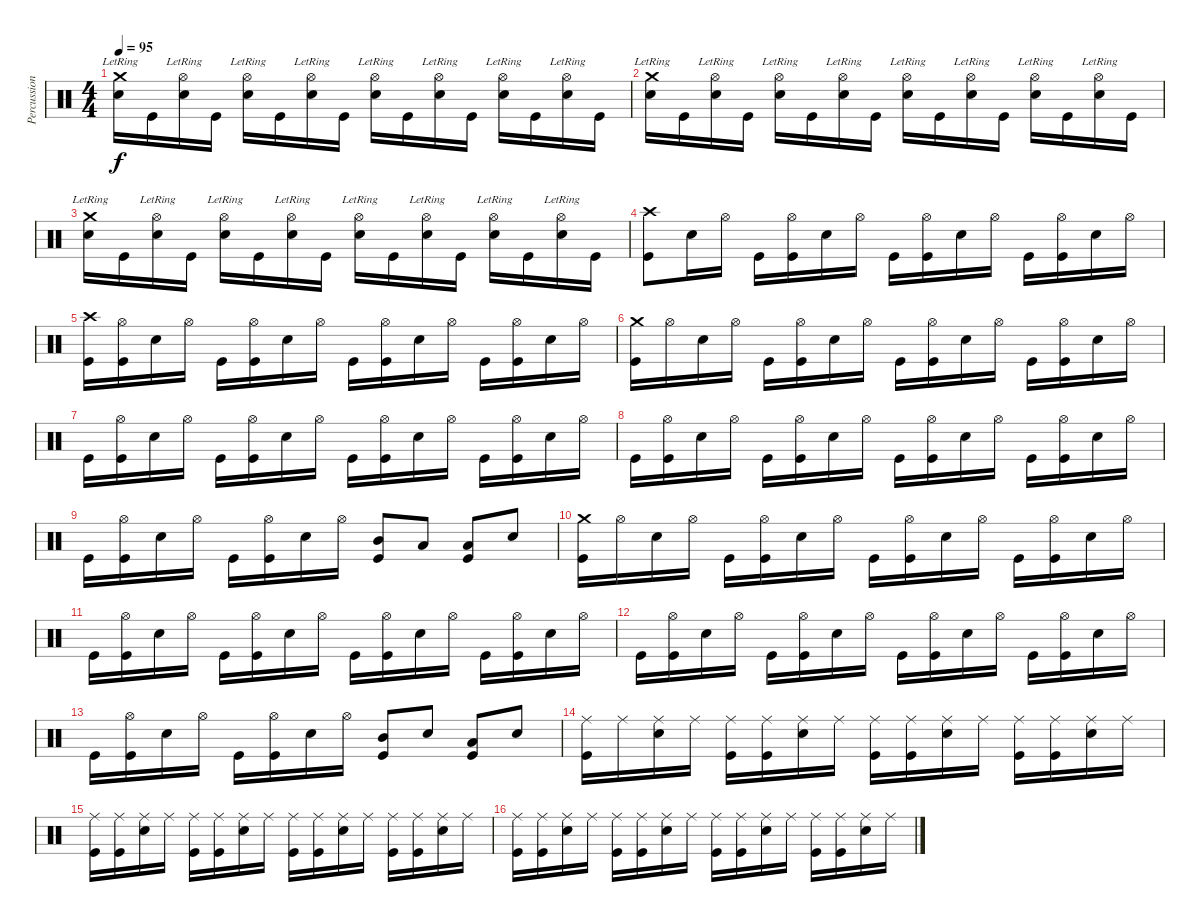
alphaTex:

\track ("Percussion" "Percussion") {instrument percussion}
\staff {score}
\articulation defaults
\ts (4 4)
\tempo 95
\clef neutral
\ks c
("Crash medium (hit)"{lr} "Snare (hit) 2").16{dy f} "Kick (hit)".16 ("Hi-Hat (open)"{lr} "Snare (hit) 2").16 "Kick (hit)".16 ("Hi-Hat (open)"{lr} "Snare (hit) 2").16 "Kick (hit)".16 ("Hi-Hat (open)"{lr} "Snare (hit) 2").16 "Kick (hit)".16 ("Hi-Hat (open)"{lr} "Snare (hit) 2").16 "Kick (hit)".16 ("Hi-Hat (open)"{lr} "Snare (hit) 2").16 "Kick (hit)".16 ("Hi-Hat (open)"{lr} "Snare (hit) 2").16 "Kick (hit)".16 ("Hi-Hat (open)"{lr} "Snare (hit) 2").16 "Kick (hit)".16 |
("Crash medium (hit)"{lr} "Snare (hit) 2").16 "Kick (hit)".16 ("Hi-Hat (open)"{lr} "Snare (hit) 2").16 "Kick (hit)".16 ("Hi-Hat (open)"{lr} "Snare (hit) 2").16 "Kick (hit)".16 ("Hi-Hat (open)"{lr} "Snare (hit) 2").16 "Kick (hit)".16 ("Hi-Hat (open)"{lr} "Snare (hit) 2").16 "Kick (hit)".16 ("Hi-Hat (open)"{lr} "Snare (hit) 2").16 "Kick (hit)".16 ("Hi-Hat (open)"{lr} "Snare (hit) 2").16 "Kick (hit)".16 ("Hi-Hat (open)"{lr} "Snare (hit) 2").16 "Kick (hit)".16 |
("Crash medium (hit)"{lr} "Snare (hit) 2").16 "Kick (hit)".16 ("Hi-Hat (open)"{lr} "Snare (hit) 2").16 "Kick (hit)".16 ("Hi-Hat (open)"{lr} "Snare (hit) 2").16 "Kick (hit)".16 ("Hi-Hat (open)"{lr} "Snare (hit) 2").16 "Kick (hit)".16 ("Hi-Hat (open)"{lr} "Snare (hit) 2").16 "Kick (hit)".16 ("Hi-Hat (open)"{lr} "Snare (hit) 2").16 "Kick (hit)".16 ("Hi-Hat (open)"{lr} "Snare (hit) 2").16 "Kick (hit)".16 ("Hi-Hat (open)"{lr} "Snare (hit) 2").16 "Kick (hit)".16 |
("Crash high (hit)" "Kick (hit)").8 "Snare (hit) 2".16 "Hi-Hat (open)".16 "Kick (hit)".16 ("Hi-Hat (open)" "Kick (hit)").16 "Snare (hit) 2".16 "Hi-Hat (open)".16 "Kick (hit)".16 ("Hi-Hat (open)" "Kick (hit)").16 "Snare (hit) 2".16 "Hi-Hat (open)".16 "Kick (hit)".16 ("Hi-Hat (open)" "Kick (hit)").16 "Snare (hit) 2".16 "Hi-Hat (open)".16 |
("Crash high (hit)" "Kick (hit)").16 ("Hi-Hat (open)" "Kick (hit)").16 "Snare (hit) 2".16 "Hi-Hat (open)".16 "Kick (hit)".16 ("Hi-Hat (open)" "Kick (hit)").16 "Snare (hit) 2".16 "Hi-Hat (open)".16 "Kick (hit)".16 ("Hi-Hat (open)" "Kick (hit)").16 "Snare (hit) 2".16 "Hi-Hat (open)".16 "Kick (hit)".16 ("Hi-Hat (open)" "Kick (hit)").16 "Snare (hit) 2".16 "Hi-Hat (open)".16 |
("Crash medium (hit)" "Kick (hit)").16 "Hi-Hat (open)".16 "Snare (hit) 2".16 "Hi-Hat (open)".16 "Kick (hit)".16 ("Hi-Hat (open)" "Kick (hit)").16 "Snare (hit) 2".16 "Hi-Hat (open)".16 "Kick (hit)".16 ("Hi-Hat (open)" "Kick (hit)").16 "Snare (hit) 2".16 "Hi-Hat (open)".16 "Kick (hit)".16 ("Hi-Hat (open)" "Kick (hit)").16 "Snare (hit) 2".16 "Hi-Hat (open)".16 |
"Kick (hit)".16 ("Hi-Hat (open)" "Kick (hit)").16 "Snare (hit) 2".16 "Hi-Hat (open)".16 "Kick (hit)".16 ("Hi-Hat (open)" "Kick (hit)").16 "Snare (hit) 2".16 "Hi-Hat (open)".16 "Kick (hit)".16 ("Hi-Hat (open)" "Kick (hit)").16 "Snare (hit) 2".16 "Hi-Hat (open)".16 "Kick (hit)".16 ("Hi-Hat (open)" "Kick (hit)").16 "Snare (hit) 2".16 "Hi-Hat (open)".16 |
"Kick (hit)".16 ("Hi-Hat (open)" "Kick (hit)").16 "Snare (hit) 2".16 "Hi-Hat (open)".16 "Kick (hit)".16 ("Hi-Hat (open)" "Kick (hit)").16 "Snare (hit) 2".16 "Hi-Hat (open)".16 "Kick (hit)".16 ("Hi-Hat (open)" "Kick (hit)").16 "Snare (hit) 2".16 "Hi-Hat (open)".16 "Kick (hit)".16 ("Hi-Hat (open)" "Kick (hit)").16 "Snare (hit) 2".16 "Hi-Hat (open)".16 |
"Kick (hit)".16 ("Hi-Hat (open)" "Kick (hit)").16 "Snare (hit) 2".16 "Hi-Hat (open)".16 "Kick (hit)".16 ("Hi-Hat (open)" "Kick (hit)").16 "Snare (hit) 2".16 "Hi-Hat (open)".16 ("Mid Tom (hit)" "Kick (hit)").8 "Low Tom (hit)".8 ("Low Tom (hit)" "Kick (hit)").8 "Snare (hit) 2".8 |
("Crash medium (hit)" "Kick (hit)").16 "Hi-Hat (open)".16 "Snare (hit) 2".16 "Hi-Hat (open)".16 "Kick (hit)".16 ("Hi-Hat (open)" "Kick (hit)").16 "Snare (hit) 2".16 "Hi-Hat (open)".16 "Kick (hit)".16 ("Hi-Hat (open)" "Kick (hit)").16 "Snare (hit) 2".16 "Hi-Hat (open)".16 "Kick (hit)".16 ("Hi-Hat (open)" "Kick (hit)").16 "Snare (hit) 2".16 "Hi-Hat (open)".16 |
"Kick (hit)".16 ("Hi-Hat (open)" "Kick (hit)").16 "Snare (hit) 2".16 "Hi-Hat (open)".16 "Kick (hit)".16 ("Hi-Hat (open)" "Kick (hit)").16 "Snare (hit) 2".16 "Hi-Hat (open)".16 "Kick (hit)".16 ("Hi-Hat (open)" "Kick (hit)").16 "Snare (hit) 2".16 "Hi-Hat (open)".16 "Kick (hit)".16 ("Hi-Hat (open)" "Kick (hit)").16 "Snare (hit) 2".16 "Hi-Hat (open)".16 |
"Kick (hit)".16 ("Hi-Hat (open)" "Kick (hit)").16 "Snare (hit) 2".16 "Hi-Hat (open)".16 "Kick (hit)".16 ("Hi-Hat (open)" "Kick (hit)").16 "Snare (hit) 2".16 "Hi-Hat (open)".16 "Kick (hit)".16 ("Hi-Hat (open)" "Kick (hit)").16 "Snare (hit) 2".16 "Hi-Hat (open)".16 "Kick (hit)".16 ("Hi-Hat (open)" "Kick (hit)").16 "Snare (hit) 2".16 "Hi-Hat (open)".16 |
"Kick (hit)".16 ("Hi-Hat (open)" "Kick (hit)").16 "Snare (hit) 2".16 "Hi-Hat (open)".16 "Kick (hit)".16 ("Hi-Hat (open)" "Kick (hit)").16 "Snare (hit) 2".16 "Hi-Hat (open)".16 ("Mid Tom (hit)" "Kick (hit)").8 "Snare (hit) 2".8 ("Low Tom (hit)" "Kick (hit)").8 "Snare (hit) 2".8 |
("Ride (middle)" "Kick (hit)").16 "Ride (middle)".16 ("Ride (middle)" "Snare (hit) 2").16 "Ride (middle)".16 ("Ride (middle)" "Kick (hit)").16 ("Ride (middle)" "Kick (hit)").16 ("Ride (middle)" "Snare (hit) 2").16 "Ride (middle)".16 ("Ride (middle)" "Kick (hit)").16 ("Ride (middle)" "Kick (hit)").16 ("Ride (middle)" "Snare (hit) 2").16 "Ride (middle)".16 ("Ride (middle)" "Kick (hit)").16 ("Ride (middle)" "Kick (hit)").16 ("Ride (middle)" "Snare (hit) 2").16 "Ride (middle)".16 |
("Ride (middle)" "Kick (hit)").16 ("Ride (middle)" "Kick (hit)").16 ("Ride (middle)" "Snare (hit) 2").16 "Ride (middle)".16 ("Ride (middle)" "Kick (hit)").16 ("Ride (middle)" "Kick (hit)").16 ("Ride (middle)" "Snare (hit) 2").16 "Ride (middle)".16 ("Ride (middle)" "Kick (hit)").16 ("Ride (middle)" "Kick (hit)").16 ("Ride (middle)" "Snare (hit) 2").16 "Ride (middle)".16 ("Ride (middle)" "Kick (hit)").16 ("Ride (middle)" "Kick (hit)").16 ("Ride (middle)" "Snare (hit) 2").16 "Ride (middle)".16 |
("Ride (middle)" "Kick (hit)").16 ("Ride (middle)" "Kick (hit)").16 ("Ride (middle)" "Snare (hit) 2").16 "Ride (middle)".16 ("Ride (middle)" "Kick (hit)").16 ("Ride (middle)" "Kick (hit)").16 ("Ride (middle)" "Snare (hit) 2").16 "Ride (middle)".16 ("Ride (middle)" "Kick (hit)").16 ("Ride (middle)" "Kick (hit)").16 ("Ride (middle)" "Snare (hit) 2").16 "Ride (middle)".16 ("Ride (middle)" "Kick (hit)").16 ("Ride (middle)" "Kick (hit)").16 ("Ride (middle)" "Snare (hit) 2").16 "Ride (middle)".16
